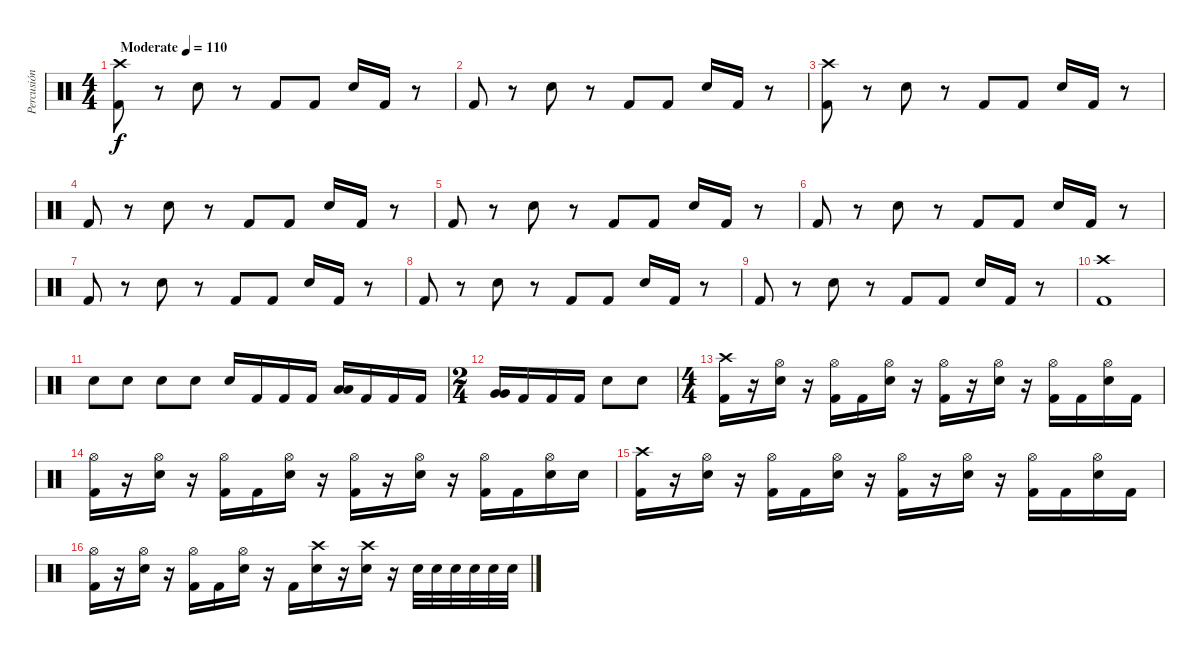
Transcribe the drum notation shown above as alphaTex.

\track ("Percusión" "Percusión") {instrument percussion}
\staff {score}
\articulation defaults
\ts (4 4)
\tempo (110 "Moderate")
\clef neutral
\ks c
("Crash high (hit)" "Kick (hit) 2").8{dy f} r.8 "Electric Snare (hit)".8 r.8 "Kick (hit) 2".8 "Kick (hit) 2".8 "Electric Snare (hit)".16 "Kick (hit) 2".16 r.8 |
"Kick (hit) 2".8 r.8 "Electric Snare (hit)".8 r.8 "Kick (hit) 2".8 "Kick (hit) 2".8 "Electric Snare (hit)".16 "Kick (hit) 2".16 r.8 |
("Crash high (hit)" "Kick (hit) 2").8 r.8 "Electric Snare (hit)".8 r.8 "Kick (hit) 2".8 "Kick (hit) 2".8 "Electric Snare (hit)".16 "Kick (hit) 2".16 r.8 |
"Kick (hit) 2".8 r.8 "Electric Snare (hit)".8 r.8 "Kick (hit) 2".8 "Kick (hit) 2".8 "Electric Snare (hit)".16 "Kick (hit) 2".16 r.8 |
"Kick (hit) 2".8 r.8 "Electric Snare (hit)".8 r.8 "Kick (hit) 2".8 "Kick (hit) 2".8 "Electric Snare (hit)".16 "Kick (hit) 2".16 r.8 |
"Kick (hit) 2".8 r.8 "Electric Snare (hit)".8 r.8 "Kick (hit) 2".8 "Kick (hit) 2".8 "Electric Snare (hit)".16 "Kick (hit) 2".16 r.8 |
"Kick (hit) 2".8 r.8 "Electric Snare (hit)".8 r.8 "Kick (hit) 2".8 "Kick (hit) 2".8 "Electric Snare (hit)".16 "Kick (hit) 2".16 r.8 |
"Kick (hit) 2".8 r.8 "Electric Snare (hit)".8 r.8 "Kick (hit) 2".8 "Kick (hit) 2".8 "Electric Snare (hit)".16 "Kick (hit) 2".16 r.8 |
"Kick (hit) 2".8 r.8 "Electric Snare (hit)".8 r.8 "Kick (hit) 2".8 "Kick (hit) 2".8 "Electric Snare (hit)".16 "Kick (hit) 2".16 r.8 |
("Crash high (hit)" "Kick (hit) 2").1 |
"Electric Snare (hit)".8 "Electric Snare (hit)".8 "Electric Snare (hit)".8 "Electric Snare (hit)".8 "Electric Snare (hit)".16 "Kick (hit) 2".16 "Kick (hit) 2".16 "Kick (hit) 2".16 ("Low Tom (hit)" "Low Tom (hit)").16 "Kick (hit) 2".16 "Kick (hit) 2".16 "Kick (hit) 2".16 |
\ts (2 4)
("Very Low Tom (hit)" "Very Low Tom (hit)").16 "Kick (hit) 2".16 "Kick (hit) 2".16 "Kick (hit) 2".16 "Electric Snare (hit)".8 "Electric Snare (hit)".8 |
\ts (4 4)
("Crash high (hit)" "Kick (hit) 2").16 r.16 ("Hi-Hat (open)" "Electric Snare (hit)").16 r.16 ("Hi-Hat (open)" "Kick (hit) 2").16 "Kick (hit) 2".16 ("Hi-Hat (open)" "Electric Snare (hit)").16 r.16 ("Hi-Hat (open)" "Kick (hit) 2").16 r.16 ("Hi-Hat (open)" "Electric Snare (hit)").16 r.16 ("Hi-Hat (open)" "Kick (hit) 2").16 "Kick (hit) 2".16 ("Hi-Hat (open)" "Electric Snare (hit)").16 "Kick (hit) 2".16 |
("Hi-Hat (open)" "Kick (hit) 2").16 r.16 ("Hi-Hat (open)" "Electric Snare (hit)").16 r.16 ("Hi-Hat (open)" "Kick (hit) 2").16 "Kick (hit) 2".16 ("Hi-Hat (open)" "Electric Snare (hit)").16 r.16 ("Hi-Hat (open)" "Kick (hit) 2").16 r.16 ("Hi-Hat (open)" "Electric Snare (hit)").16 r.16 ("Hi-Hat (open)" "Kick (hit) 2").16 "Kick (hit) 2".16 ("Hi-Hat (open)" "Electric Snare (hit)").16 "Electric Snare (hit)".16 |
("Crash high (hit)" "Kick (hit) 2").16 r.16 ("Hi-Hat (open)" "Electric Snare (hit)").16 r.16 ("Hi-Hat (open)" "Kick (hit) 2").16 "Kick (hit) 2".16 ("Hi-Hat (open)" "Electric Snare (hit)").16 r.16 ("Hi-Hat (open)" "Kick (hit) 2").16 r.16 ("Hi-Hat (open)" "Electric Snare (hit)").16 r.16 ("Hi-Hat (open)" "Kick (hit) 2").16 "Kick (hit) 2".16 ("Hi-Hat (open)" "Electric Snare (hit)").16 "Kick (hit) 2".16 |
("Hi-Hat (open)" "Kick (hit) 2").16 r.16 ("Hi-Hat (open)" "Electric Snare (hit)").16 r.16 ("Hi-Hat (open)" "Kick (hit) 2").16 "Kick (hit) 2".16 ("Hi-Hat (open)" "Electric Snare (hit)").16 r.16 "Kick (hit) 2".16 ("Crash high (hit)" "Electric Snare (hit)").16 r.16 ("Crash high (hit)" "Electric Snare (hit)").16 r.16 "Electric Snare (hit)".32 "Electric Snare (hit)".32 "Electric Snare (hit)".32 "Electric Snare (hit)".32 "Electric Snare (hit)".32 "Electric Snare (hit)".32
